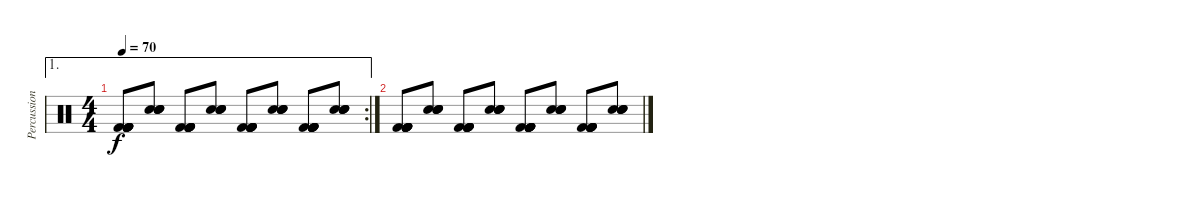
\track ("Percussions" "Percussion") {instrument percussion}
\staff {score}
\articulation defaults
\ae 1
\rc 2
\ts (4 4)
\tempo 70
\clef neutral
\ks c
("Kick (hit) 2" "Kick (hit) 2" "Kick (hit) 2" "Kick (hit) 2" "Kick (hit) 2" "Kick (hit) 2").8{dy f} ("Electric Snare (hit)" "Electric Snare (hit)" "Electric Snare (hit)" "Electric Snare (hit)").8 ("Kick (hit) 2" "Kick (hit) 2" "Kick (hit) 2" "Kick (hit) 2" "Kick (hit) 2" "Kick (hit) 2").8 ("Electric Snare (hit)" "Electric Snare (hit)" "Electric Snare (hit)" "Electric Snare (hit)").8 ("Kick (hit) 2" "Kick (hit) 2" "Kick (hit) 2" "Kick (hit) 2" "Kick (hit) 2" "Kick (hit) 2").8 ("Electric Snare (hit)" "Electric Snare (hit)" "Electric Snare (hit)" "Electric Snare (hit)").8 ("Kick (hit) 2" "Kick (hit) 2" "Kick (hit) 2" "Kick (hit) 2" "Kick (hit) 2" "Kick (hit) 2").8 ("Electric Snare (hit)" "Electric Snare (hit)" "Electric Snare (hit)" "Electric Snare (hit)").8 |
("Kick (hit) 2" "Kick (hit) 2" "Kick (hit) 2" "Kick (hit) 2" "Kick (hit) 2" "Kick (hit) 2").8 ("Electric Snare (hit)" "Electric Snare (hit)" "Electric Snare (hit)" "Electric Snare (hit)").8 ("Kick (hit) 2" "Kick (hit) 2" "Kick (hit) 2" "Kick (hit) 2" "Kick (hit) 2" "Kick (hit) 2").8 ("Electric Snare (hit)" "Electric Snare (hit)" "Electric Snare (hit)" "Electric Snare (hit)").8 ("Kick (hit) 2" "Kick (hit) 2" "Kick (hit) 2" "Kick (hit) 2" "Kick (hit) 2" "Kick (hit) 2").8 ("Electric Snare (hit)" "Electric Snare (hit)" "Electric Snare (hit)" "Electric Snare (hit)").8 ("Kick (hit) 2" "Kick (hit) 2" "Kick (hit) 2" "Kick (hit) 2" "Kick (hit) 2" "Kick (hit) 2").8 ("Electric Snare (hit)" "Electric Snare (hit)" "Electric Snare (hit)" "Electric Snare (hit)").8
